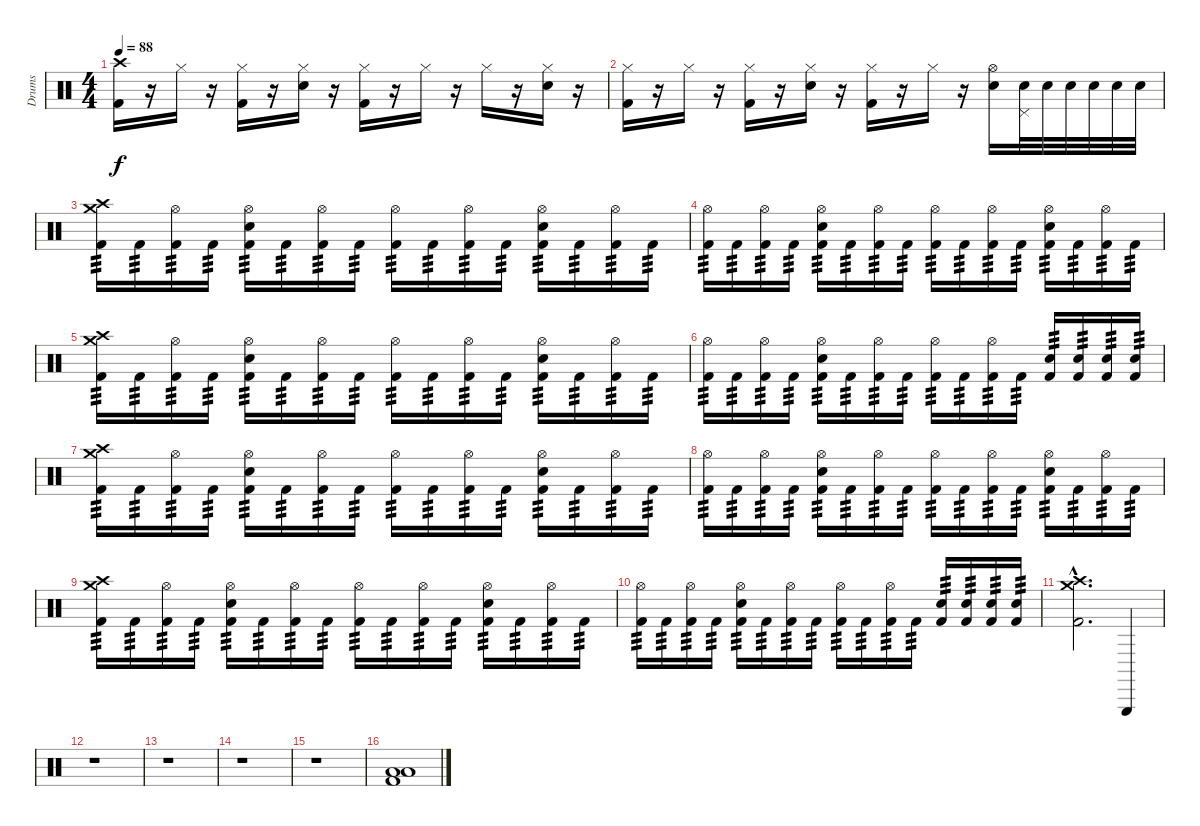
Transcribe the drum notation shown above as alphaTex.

\track ("Drums" "Drums") {instrument percussion}
\staff {score}
\articulation defaults
\ts (4 4)
\tempo 88
\clef neutral
\ks c
("Crash high (hit)" "Kick (hit) 2").16{dy f} r.16 "Hi-Hat (closed)".16 r.16 ("Hi-Hat (closed)" "Kick (hit) 2").16 r.16 ("Hi-Hat (closed)" "Electric Snare (hit)").16 r.16 ("Hi-Hat (closed)" "Kick (hit) 2").16 r.16 "Hi-Hat (closed)".16 r.16 "Hi-Hat (closed)".16 r.16 ("Hi-Hat (closed)" "Electric Snare (hit)").16 r.16 |
("Hi-Hat (closed)" "Kick (hit) 2").16 r.16 "Hi-Hat (closed)".16 r.16 ("Hi-Hat (closed)" "Kick (hit) 2").16 r.16 ("Hi-Hat (closed)" "Electric Snare (hit)").16 r.16 ("Hi-Hat (closed)" "Kick (hit) 2").16 r.16 "Hi-Hat (closed)".16 r.16 ("Hi-Hat (open)" "Electric Snare (hit)").16 ("Pedal Hi-Hat (hit)" "Snare (hit) 2").32 "Snare (hit) 2".32 "Snare (hit) 2".32 "Snare (hit) 2".32 "Snare (hit) 2".32 "Snare (hit) 2".32 |
("Crash high (hit)" "Crash medium (hit)" "Kick (hit) 2").16{tp 3} "Kick (hit) 2".16{tp 3} ("Hi-Hat (open)" "Kick (hit) 2").16{tp 3} "Kick (hit) 2".16{tp 3} ("Hi-Hat (open)" "Electric Snare (hit)" "Kick (hit) 2").16{tp 3} "Kick (hit) 2".16{tp 3} ("Hi-Hat (open)" "Kick (hit) 2").16{tp 3} "Kick (hit) 2".16{tp 3} ("Hi-Hat (open)" "Kick (hit) 2").16{tp 3} "Kick (hit) 2".16{tp 3} ("Hi-Hat (open)" "Kick (hit) 2").16{tp 3} "Kick (hit) 2".16{tp 3} ("Hi-Hat (open)" "Electric Snare (hit)" "Kick (hit) 2").16{tp 3} "Kick (hit) 2".16{tp 3} ("Hi-Hat (open)" "Kick (hit) 2").16{tp 3} "Kick (hit) 2".16{tp 3} |
("Hi-Hat (open)" "Kick (hit) 2").16{tp 3} "Kick (hit) 2".16{tp 3} ("Hi-Hat (open)" "Kick (hit) 2").16{tp 3} "Kick (hit) 2".16{tp 3} ("Hi-Hat (open)" "Electric Snare (hit)" "Kick (hit) 2").16{tp 3} "Kick (hit) 2".16{tp 3} ("Hi-Hat (open)" "Kick (hit) 2").16{tp 3} "Kick (hit) 2".16{tp 3} ("Hi-Hat (open)" "Kick (hit) 2").16{tp 3} "Kick (hit) 2".16{tp 3} ("Hi-Hat (open)" "Kick (hit) 2").16{tp 3} "Kick (hit) 2".16{tp 3} ("Hi-Hat (open)" "Snare (hit) 2" "Kick (hit) 2").16{tp 3} "Kick (hit) 2".16{tp 3} ("Hi-Hat (open)" "Kick (hit) 2").16{tp 3} "Kick (hit) 2".16{tp 3} |
("Crash high (hit)" "Crash medium (hit)" "Kick (hit) 2").16{tp 3} "Kick (hit) 2".16{tp 3} ("Hi-Hat (open)" "Kick (hit) 2").16{tp 3} "Kick (hit) 2".16{tp 3} ("Hi-Hat (open)" "Electric Snare (hit)" "Kick (hit) 2").16{tp 3} "Kick (hit) 2".16{tp 3} ("Hi-Hat (open)" "Kick (hit) 2").16{tp 3} "Kick (hit) 2".16{tp 3} ("Hi-Hat (open)" "Kick (hit) 2").16{tp 3} "Kick (hit) 2".16{tp 3} ("Hi-Hat (open)" "Kick (hit) 2").16{tp 3} "Kick (hit) 2".16{tp 3} ("Hi-Hat (open)" "Electric Snare (hit)" "Kick (hit) 2").16{tp 3} "Kick (hit) 2".16{tp 3} ("Hi-Hat (open)" "Kick (hit) 2").16{tp 3} "Kick (hit) 2".16{tp 3} |
("Hi-Hat (open)" "Kick (hit) 2").16{tp 3} "Kick (hit) 2".16{tp 3} ("Hi-Hat (open)" "Kick (hit) 2").16{tp 3} "Kick (hit) 2".16{tp 3} ("Hi-Hat (open)" "Electric Snare (hit)" "Kick (hit) 2").16{tp 3} "Kick (hit) 2".16{tp 3} ("Hi-Hat (open)" "Kick (hit) 2").16{tp 3} "Kick (hit) 2".16{tp 3} ("Hi-Hat (open)" "Kick (hit) 2").16{tp 3} "Kick (hit) 2".16{tp 3} ("Hi-Hat (open)" "Kick (hit) 2").16{tp 3} "Kick (hit) 2".16{tp 3} ("Snare (hit) 2" "Kick (hit) 2").16{tp 3} ("Snare (hit) 2" "Kick (hit) 2").16{tp 3} ("Snare (hit) 2" "Kick (hit) 2").16{tp 3} ("Snare (hit) 2" "Kick (hit) 2").16{tp 3} |
("Crash high (hit)" "Crash medium (hit)" "Kick (hit) 2").16{tp 3} "Kick (hit) 2".16{tp 3} ("Hi-Hat (open)" "Kick (hit) 2").16{tp 3} "Kick (hit) 2".16{tp 3} ("Hi-Hat (open)" "Electric Snare (hit)" "Kick (hit) 2").16{tp 3} "Kick (hit) 2".16{tp 3} ("Hi-Hat (open)" "Kick (hit) 2").16{tp 3} "Kick (hit) 2".16{tp 3} ("Hi-Hat (open)" "Kick (hit) 2").16{tp 3} "Kick (hit) 2".16{tp 3} ("Hi-Hat (open)" "Kick (hit) 2").16{tp 3} "Kick (hit) 2".16{tp 3} ("Hi-Hat (open)" "Electric Snare (hit)" "Kick (hit) 2").16{tp 3} "Kick (hit) 2".16{tp 3} ("Hi-Hat (open)" "Kick (hit) 2").16{tp 3} "Kick (hit) 2".16{tp 3} |
("Hi-Hat (open)" "Kick (hit) 2").16{tp 3} "Kick (hit) 2".16{tp 3} ("Hi-Hat (open)" "Kick (hit) 2").16{tp 3} "Kick (hit) 2".16{tp 3} ("Hi-Hat (open)" "Electric Snare (hit)" "Kick (hit) 2").16{tp 3} "Kick (hit) 2".16{tp 3} ("Hi-Hat (open)" "Kick (hit) 2").16{tp 3} "Kick (hit) 2".16{tp 3} ("Hi-Hat (open)" "Kick (hit) 2").16{tp 3} "Kick (hit) 2".16{tp 3} ("Hi-Hat (open)" "Kick (hit) 2").16{tp 3} "Kick (hit) 2".16{tp 3} ("Hi-Hat (open)" "Snare (hit) 2" "Kick (hit) 2").16{tp 3} "Kick (hit) 2".16{tp 3} ("Hi-Hat (open)" "Kick (hit) 2").16{tp 3} "Kick (hit) 2".16{tp 3} |
("Crash high (hit)" "Crash medium (hit)" "Kick (hit) 2").16{tp 3} "Kick (hit) 2".16{tp 3} ("Hi-Hat (open)" "Kick (hit) 2").16{tp 3} "Kick (hit) 2".16{tp 3} ("Hi-Hat (open)" "Electric Snare (hit)" "Kick (hit) 2").16{tp 3} "Kick (hit) 2".16{tp 3} ("Hi-Hat (open)" "Kick (hit) 2").16{tp 3} "Kick (hit) 2".16{tp 3} ("Hi-Hat (open)" "Kick (hit) 2").16{tp 3} "Kick (hit) 2".16{tp 3} ("Hi-Hat (open)" "Kick (hit) 2").16{tp 3} "Kick (hit) 2".16{tp 3} ("Hi-Hat (open)" "Electric Snare (hit)" "Kick (hit) 2").16{tp 3} "Kick (hit) 2".16{tp 3} ("Hi-Hat (open)" "Kick (hit) 2").16{tp 3} "Kick (hit) 2".16{tp 3} |
("Hi-Hat (open)" "Kick (hit) 2").16{tp 3} "Kick (hit) 2".16{tp 3} ("Hi-Hat (open)" "Kick (hit) 2").16{tp 3} "Kick (hit) 2".16{tp 3} ("Hi-Hat (open)" "Electric Snare (hit)" "Kick (hit) 2").16{tp 3} "Kick (hit) 2".16{tp 3} ("Hi-Hat (open)" "Kick (hit) 2").16{tp 3} "Kick (hit) 2".16{tp 3} ("Hi-Hat (open)" "Kick (hit) 2").16{tp 3} "Kick (hit) 2".16{tp 3} ("Hi-Hat (open)" "Kick (hit) 2").16{tp 3} "Kick (hit) 2".16{tp 3} ("Snare (hit) 2" "Kick (hit) 2").16{tp 3} ("Snare (hit) 2" "Kick (hit) 2").16{tp 3} ("Snare (hit) 2" "Kick (hit) 2").16{tp 3} ("Snare (hit) 2" "Kick (hit) 2").16{tp 3} |
("Crash high (hit)"{hac} "Crash medium (hit)"{hac} "Kick (hit) 2"{hac}).2{d} "Triangle (hit)".4 |
r.1 |
r.1 |
r.1 |
r.1 |
("Low Tom (hit)" "Low Floor Tom (hit)" "Kick (hit) 2").1
